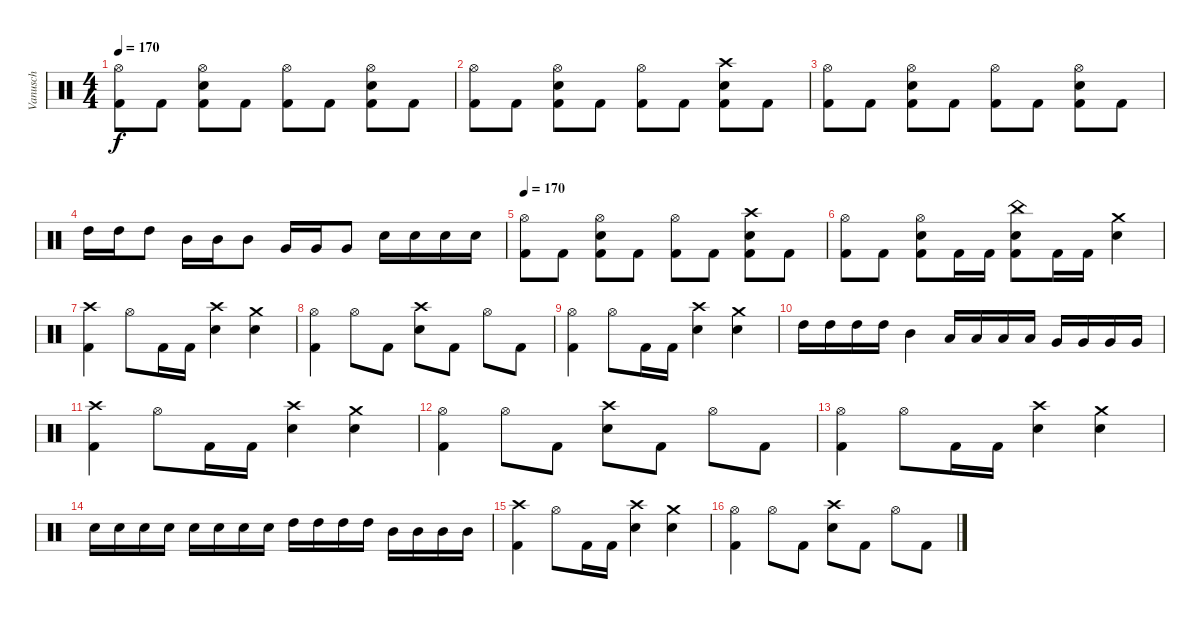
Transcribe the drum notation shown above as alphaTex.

\track ("Vanusch" "Vanusch") {instrument percussion}
\staff {score}
\articulation defaults
\ts (4 4)
\tempo 170
\clef neutral
\ks c
("Hi-Hat (open)" "Kick (hit) 2").8{dy f} "Kick (hit) 2".8 ("Hi-Hat (open)" "Snare (hit) 2" "Kick (hit) 2").8 "Kick (hit) 2".8 ("Hi-Hat (open)" "Kick (hit) 2").8 "Kick (hit) 2".8 ("Hi-Hat (open)" "Snare (hit) 2" "Kick (hit) 2").8 "Kick (hit) 2".8 |
("Hi-Hat (open)" "Kick (hit) 2").8 "Kick (hit) 2".8 ("Hi-Hat (open)" "Snare (hit) 2" "Kick (hit) 2").8 "Kick (hit) 2".8 ("Hi-Hat (open)" "Kick (hit) 2").8 "Kick (hit) 2".8 ("Crash high (hit)" "Snare (hit) 2" "Kick (hit) 2").8 "Kick (hit) 2".8 |
("Hi-Hat (open)" "Kick (hit) 2").8 "Kick (hit) 2".8 ("Hi-Hat (open)" "Snare (hit) 2" "Kick (hit) 2").8 "Kick (hit) 2".8 ("Hi-Hat (open)" "Kick (hit) 2").8 "Kick (hit) 2".8 ("Hi-Hat (open)" "Snare (hit) 2" "Kick (hit) 2").8 "Kick (hit) 2".8 |
"High Tom (hit)".16 "High Tom (hit)".16 "High Tom (hit)".8 "Mid Tom (hit)".16 "Mid Tom (hit)".16 "Mid Tom (hit)".8 "Very Low Tom (hit)".16 "Very Low Tom (hit)".16 "Very Low Tom (hit)".8 "Snare (hit) 2".16 "Snare (hit) 2".16 "Snare (hit) 2".16 "Snare (hit) 2".16 |
\tempo 170
("Hi-Hat (open)" "Kick (hit) 2").8 "Kick (hit) 2".8 ("Hi-Hat (open)" "Snare (hit) 2" "Kick (hit) 2").8 "Kick (hit) 2".8 ("Hi-Hat (open)" "Kick (hit) 2").8 "Kick (hit) 2".8 ("Crash high (hit)" "Snare (hit) 2" "Kick (hit) 2").8 "Kick (hit) 2".8 |
("Hi-Hat (open)" "Kick (hit) 2").8 "Kick (hit) 2".8 ("Hi-Hat (open)" "Snare (hit) 2" "Kick (hit) 2").8 "Kick (hit) 2".16 "Kick (hit) 2".16 ("China (hit)" "Snare (hit) 2" "Kick (hit) 2").8 "Kick (hit) 2".16 "Kick (hit) 2".16 ("Crash medium (hit)" "Snare (hit) 2").4 |
("Crash high (hit)" "Kick (hit) 2").4 "Hi-Hat (open)".8 "Kick (hit) 2".16 "Kick (hit) 2".16 ("Crash high (hit)" "Snare (hit) 2").4 ("Crash medium (hit)" "Snare (hit) 2").4 |
("Hi-Hat (open)" "Kick (hit) 2").4 "Hi-Hat (open)".8 "Kick (hit) 2".8 ("Crash high (hit)" "Snare (hit) 2").8 "Kick (hit) 2".8 "Hi-Hat (open)".8 "Kick (hit) 2".8 |
("Hi-Hat (open)" "Kick (hit) 2").4 "Hi-Hat (open)".8 "Kick (hit) 2".16 "Kick (hit) 2".16 ("Crash high (hit)" "Snare (hit) 2").4 ("Crash medium (hit)" "Snare (hit) 2").4 |
"High Tom (hit)".16 "High Tom (hit)".16 "High Tom (hit)".16 "High Tom (hit)".16 "Mid Tom (hit)".4 "Low Tom (hit)".16 "Low Tom (hit)".16 "Low Tom (hit)".16 "Low Tom (hit)".16 "Very Low Tom (hit)".16 "Very Low Tom (hit)".16 "Very Low Tom (hit)".16 "Very Low Tom (hit)".16 |
("Crash high (hit)" "Kick (hit) 2").4 "Hi-Hat (open)".8 "Kick (hit) 2".16 "Kick (hit) 2".16 ("Crash high (hit)" "Snare (hit) 2").4 ("Crash medium (hit)" "Snare (hit) 2").4 |
("Hi-Hat (open)" "Kick (hit) 2").4 "Hi-Hat (open)".8 "Kick (hit) 2".8 ("Crash high (hit)" "Snare (hit) 2").8 "Kick (hit) 2".8 "Hi-Hat (open)".8 "Kick (hit) 2".8 |
("Hi-Hat (open)" "Kick (hit) 2").4 "Hi-Hat (open)".8 "Kick (hit) 2".16 "Kick (hit) 2".16 ("Crash high (hit)" "Snare (hit) 2").4 ("Crash medium (hit)" "Snare (hit) 2").4 |
"Snare (hit) 2".16 "Snare (hit) 2".16 "Snare (hit) 2".16 "Snare (hit) 2".16 "Snare (hit) 2".16 "Snare (hit) 2".16 "Snare (hit) 2".16 "Snare (hit) 2".16 "High Tom (hit)".16 "High Tom (hit)".16 "High Tom (hit)".16 "High Tom (hit)".16 "Mid Tom (hit)".16 "Mid Tom (hit)".16 "Mid Tom (hit)".16 "Mid Tom (hit)".16 |
("Crash high (hit)" "Kick (hit) 2").4 "Hi-Hat (open)".8 "Kick (hit) 2".16 "Kick (hit) 2".16 ("Crash high (hit)" "Snare (hit) 2").4 ("Crash medium (hit)" "Snare (hit) 2").4 |
("Hi-Hat (open)" "Kick (hit) 2").4 "Hi-Hat (open)".8 "Kick (hit) 2".8 ("Crash high (hit)" "Snare (hit) 2").8 "Kick (hit) 2".8 "Hi-Hat (open)".8 "Kick (hit) 2".8
